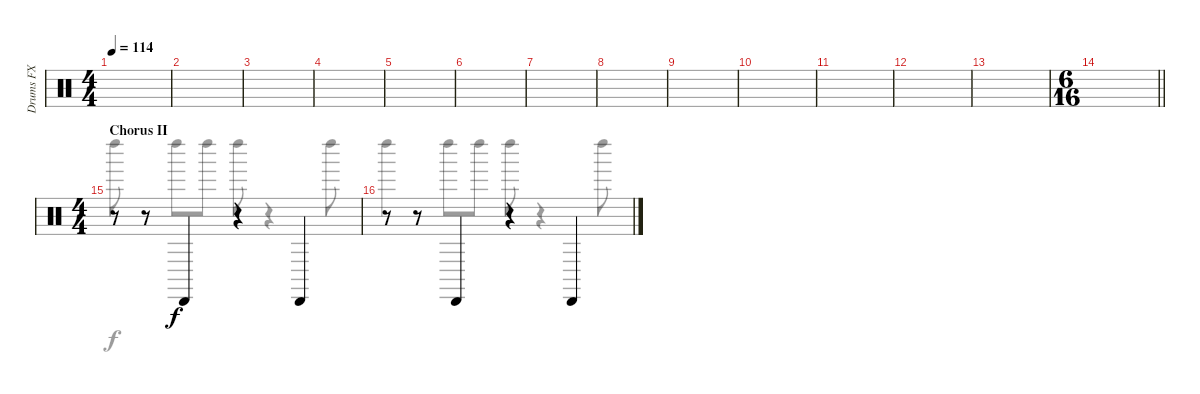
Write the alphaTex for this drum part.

\track ("Drums FX" "Drums FX") {instrument percussion}
\staff {score}
\articulation defaults
\voice
\ts (4 4)
\tempo 114
\clef neutral
\ks c
|
|
|
|
|
|
|
|
|
|
|
|
|
\ts (6 16)
\barLineRight lightlight
|
\ts (4 4)
\section ("" "Chorus II")
r.8 r.8 "Cabasa (hit)".4 r.4 "Cabasa (hit)".4 |
r.8 r.8 "Cabasa (hit)".4 r.4 "Cabasa (hit)".4
\voice
\clef neutral
\ottava regular
\simile none
\ks c
|
|
|
|
|
|
|
|
|
|
|
|
|
\barLineRight lightlight
|
"Left Maraca (hit)".8 r.8 "Left Maraca (hit)".8 "Left Maraca (hit)".8 "Left Maraca (hit)".8 r.4 "Left Maraca (hit)".8 |
"Left Maraca (hit)".4 "Left Maraca (hit)".8 "Left Maraca (hit)".8 "Left Maraca (hit)".8 r.4 "Left Maraca (hit)".8
